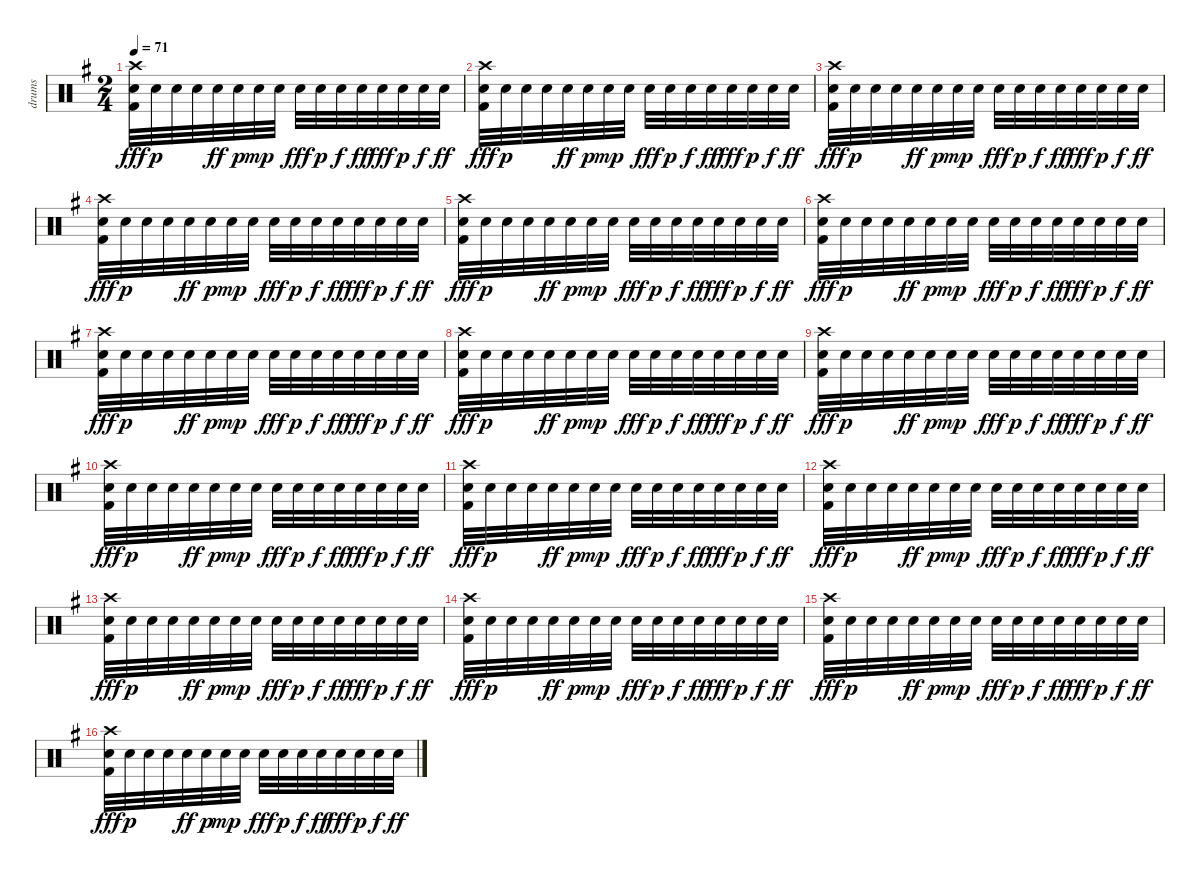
\track ("drums" "drums") {instrument percussion}
\staff {score}
\articulation defaults
\ts (2 4)
\tempo 71
\clef neutral
\ks g
("Crash high (hit)" "Snare (hit) 2" "Kick (hit) 2").32{dy fff} "Snare (hit) 2".32{dy p} "Snare (hit) 2".32 "Snare (hit) 2".32 "Snare (hit) 2".32{dy ff} "Snare (hit) 2".32{dy p} "Snare (hit) 2".32{dy mp} "Snare (hit) 2".32 "Snare (hit) 2".32{dy fff} "Snare (hit) 2".32{dy p} "Snare (hit) 2".32{dy f} "Snare (hit) 2".32{dy ff} "Snare (hit) 2".32{dy fff} "Snare (hit) 2".32{dy p} "Snare (hit) 2".32{dy f} "Snare (hit) 2".32{dy ff} |
("Crash high (hit)" "Snare (hit) 2" "Kick (hit) 2").32{dy fff} "Snare (hit) 2".32{dy p} "Snare (hit) 2".32 "Snare (hit) 2".32 "Snare (hit) 2".32{dy ff} "Snare (hit) 2".32{dy p} "Snare (hit) 2".32{dy mp} "Snare (hit) 2".32 "Snare (hit) 2".32{dy fff} "Snare (hit) 2".32{dy p} "Snare (hit) 2".32{dy f} "Snare (hit) 2".32{dy ff} "Snare (hit) 2".32{dy fff} "Snare (hit) 2".32{dy p} "Snare (hit) 2".32{dy f} "Snare (hit) 2".32{dy ff} |
("Crash high (hit)" "Snare (hit) 2" "Kick (hit) 2").32{dy fff} "Snare (hit) 2".32{dy p} "Snare (hit) 2".32 "Snare (hit) 2".32 "Snare (hit) 2".32{dy ff} "Snare (hit) 2".32{dy p} "Snare (hit) 2".32{dy mp} "Snare (hit) 2".32 "Snare (hit) 2".32{dy fff} "Snare (hit) 2".32{dy p} "Snare (hit) 2".32{dy f} "Snare (hit) 2".32{dy ff} "Snare (hit) 2".32{dy fff} "Snare (hit) 2".32{dy p} "Snare (hit) 2".32{dy f} "Snare (hit) 2".32{dy ff} |
("Crash high (hit)" "Snare (hit) 2" "Kick (hit) 2").32{dy fff} "Snare (hit) 2".32{dy p} "Snare (hit) 2".32 "Snare (hit) 2".32 "Snare (hit) 2".32{dy ff} "Snare (hit) 2".32{dy p} "Snare (hit) 2".32{dy mp} "Snare (hit) 2".32 "Snare (hit) 2".32{dy fff} "Snare (hit) 2".32{dy p} "Snare (hit) 2".32{dy f} "Snare (hit) 2".32{dy ff} "Snare (hit) 2".32{dy fff} "Snare (hit) 2".32{dy p} "Snare (hit) 2".32{dy f} "Snare (hit) 2".32{dy ff} |
("Crash high (hit)" "Snare (hit) 2" "Kick (hit) 2").32{dy fff} "Snare (hit) 2".32{dy p} "Snare (hit) 2".32 "Snare (hit) 2".32 "Snare (hit) 2".32{dy ff} "Snare (hit) 2".32{dy p} "Snare (hit) 2".32{dy mp} "Snare (hit) 2".32 "Snare (hit) 2".32{dy fff} "Snare (hit) 2".32{dy p} "Snare (hit) 2".32{dy f} "Snare (hit) 2".32{dy ff} "Snare (hit) 2".32{dy fff} "Snare (hit) 2".32{dy p} "Snare (hit) 2".32{dy f} "Snare (hit) 2".32{dy ff} |
("Crash high (hit)" "Snare (hit) 2" "Kick (hit) 2").32{dy fff} "Snare (hit) 2".32{dy p} "Snare (hit) 2".32 "Snare (hit) 2".32 "Snare (hit) 2".32{dy ff} "Snare (hit) 2".32{dy p} "Snare (hit) 2".32{dy mp} "Snare (hit) 2".32 "Snare (hit) 2".32{dy fff} "Snare (hit) 2".32{dy p} "Snare (hit) 2".32{dy f} "Snare (hit) 2".32{dy ff} "Snare (hit) 2".32{dy fff} "Snare (hit) 2".32{dy p} "Snare (hit) 2".32{dy f} "Snare (hit) 2".32{dy ff} |
("Crash high (hit)" "Snare (hit) 2" "Kick (hit) 2").32{dy fff} "Snare (hit) 2".32{dy p} "Snare (hit) 2".32 "Snare (hit) 2".32 "Snare (hit) 2".32{dy ff} "Snare (hit) 2".32{dy p} "Snare (hit) 2".32{dy mp} "Snare (hit) 2".32 "Snare (hit) 2".32{dy fff} "Snare (hit) 2".32{dy p} "Snare (hit) 2".32{dy f} "Snare (hit) 2".32{dy ff} "Snare (hit) 2".32{dy fff} "Snare (hit) 2".32{dy p} "Snare (hit) 2".32{dy f} "Snare (hit) 2".32{dy ff} |
("Crash high (hit)" "Snare (hit) 2" "Kick (hit) 2").32{dy fff} "Snare (hit) 2".32{dy p} "Snare (hit) 2".32 "Snare (hit) 2".32 "Snare (hit) 2".32{dy ff} "Snare (hit) 2".32{dy p} "Snare (hit) 2".32{dy mp} "Snare (hit) 2".32 "Snare (hit) 2".32{dy fff} "Snare (hit) 2".32{dy p} "Snare (hit) 2".32{dy f} "Snare (hit) 2".32{dy ff} "Snare (hit) 2".32{dy fff} "Snare (hit) 2".32{dy p} "Snare (hit) 2".32{dy f} "Snare (hit) 2".32{dy ff} |
("Crash high (hit)" "Snare (hit) 2" "Kick (hit) 2").32{dy fff} "Snare (hit) 2".32{dy p} "Snare (hit) 2".32 "Snare (hit) 2".32 "Snare (hit) 2".32{dy ff} "Snare (hit) 2".32{dy p} "Snare (hit) 2".32{dy mp} "Snare (hit) 2".32 "Snare (hit) 2".32{dy fff} "Snare (hit) 2".32{dy p} "Snare (hit) 2".32{dy f} "Snare (hit) 2".32{dy ff} "Snare (hit) 2".32{dy fff} "Snare (hit) 2".32{dy p} "Snare (hit) 2".32{dy f} "Snare (hit) 2".32{dy ff} |
("Crash high (hit)" "Snare (hit) 2" "Kick (hit) 2").32{dy fff} "Snare (hit) 2".32{dy p} "Snare (hit) 2".32 "Snare (hit) 2".32 "Snare (hit) 2".32{dy ff} "Snare (hit) 2".32{dy p} "Snare (hit) 2".32{dy mp} "Snare (hit) 2".32 "Snare (hit) 2".32{dy fff} "Snare (hit) 2".32{dy p} "Snare (hit) 2".32{dy f} "Snare (hit) 2".32{dy ff} "Snare (hit) 2".32{dy fff} "Snare (hit) 2".32{dy p} "Snare (hit) 2".32{dy f} "Snare (hit) 2".32{dy ff} |
("Crash high (hit)" "Snare (hit) 2" "Kick (hit) 2").32{dy fff} "Snare (hit) 2".32{dy p} "Snare (hit) 2".32 "Snare (hit) 2".32 "Snare (hit) 2".32{dy ff} "Snare (hit) 2".32{dy p} "Snare (hit) 2".32{dy mp} "Snare (hit) 2".32 "Snare (hit) 2".32{dy fff} "Snare (hit) 2".32{dy p} "Snare (hit) 2".32{dy f} "Snare (hit) 2".32{dy ff} "Snare (hit) 2".32{dy fff} "Snare (hit) 2".32{dy p} "Snare (hit) 2".32{dy f} "Snare (hit) 2".32{dy ff} |
("Crash high (hit)" "Snare (hit) 2" "Kick (hit) 2").32{dy fff} "Snare (hit) 2".32{dy p} "Snare (hit) 2".32 "Snare (hit) 2".32 "Snare (hit) 2".32{dy ff} "Snare (hit) 2".32{dy p} "Snare (hit) 2".32{dy mp} "Snare (hit) 2".32 "Snare (hit) 2".32{dy fff} "Snare (hit) 2".32{dy p} "Snare (hit) 2".32{dy f} "Snare (hit) 2".32{dy ff} "Snare (hit) 2".32{dy fff} "Snare (hit) 2".32{dy p} "Snare (hit) 2".32{dy f} "Snare (hit) 2".32{dy ff} |
("Crash high (hit)" "Snare (hit) 2" "Kick (hit) 2").32{dy fff} "Snare (hit) 2".32{dy p} "Snare (hit) 2".32 "Snare (hit) 2".32 "Snare (hit) 2".32{dy ff} "Snare (hit) 2".32{dy p} "Snare (hit) 2".32{dy mp} "Snare (hit) 2".32 "Snare (hit) 2".32{dy fff} "Snare (hit) 2".32{dy p} "Snare (hit) 2".32{dy f} "Snare (hit) 2".32{dy ff} "Snare (hit) 2".32{dy fff} "Snare (hit) 2".32{dy p} "Snare (hit) 2".32{dy f} "Snare (hit) 2".32{dy ff} |
("Crash high (hit)" "Snare (hit) 2" "Kick (hit) 2").32{dy fff} "Snare (hit) 2".32{dy p} "Snare (hit) 2".32 "Snare (hit) 2".32 "Snare (hit) 2".32{dy ff} "Snare (hit) 2".32{dy p} "Snare (hit) 2".32{dy mp} "Snare (hit) 2".32 "Snare (hit) 2".32{dy fff} "Snare (hit) 2".32{dy p} "Snare (hit) 2".32{dy f} "Snare (hit) 2".32{dy ff} "Snare (hit) 2".32{dy fff} "Snare (hit) 2".32{dy p} "Snare (hit) 2".32{dy f} "Snare (hit) 2".32{dy ff} |
("Crash high (hit)" "Snare (hit) 2" "Kick (hit) 2").32{dy fff} "Snare (hit) 2".32{dy p} "Snare (hit) 2".32 "Snare (hit) 2".32 "Snare (hit) 2".32{dy ff} "Snare (hit) 2".32{dy p} "Snare (hit) 2".32{dy mp} "Snare (hit) 2".32 "Snare (hit) 2".32{dy fff} "Snare (hit) 2".32{dy p} "Snare (hit) 2".32{dy f} "Snare (hit) 2".32{dy ff} "Snare (hit) 2".32{dy fff} "Snare (hit) 2".32{dy p} "Snare (hit) 2".32{dy f} "Snare (hit) 2".32{dy ff} |
("Crash high (hit)" "Snare (hit) 2" "Kick (hit) 2").32{dy fff} "Snare (hit) 2".32{dy p} "Snare (hit) 2".32 "Snare (hit) 2".32 "Snare (hit) 2".32{dy ff} "Snare (hit) 2".32{dy p} "Snare (hit) 2".32{dy mp} "Snare (hit) 2".32 "Snare (hit) 2".32{dy fff} "Snare (hit) 2".32{dy p} "Snare (hit) 2".32{dy f} "Snare (hit) 2".32{dy ff} "Snare (hit) 2".32{dy fff} "Snare (hit) 2".32{dy p} "Snare (hit) 2".32{dy f} "Snare (hit) 2".32{dy ff}
